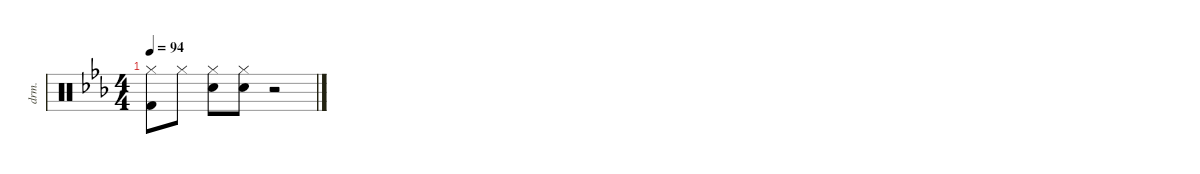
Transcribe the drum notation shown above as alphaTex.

\defaultSystemsLayout 4
\hideDynamics
\bracketExtendMode nobrackets
\otherSystemsTrackNameOrientation horizontal
\track ("Percussion" "drm.") {instrument percussion}
\staff {score}
\articulation defaults
\ts (4 4)
\tempo 94
\clef neutral
\ks eb
("Hi-Hat (closed)"{acc forcenatural} "Kick (hit) 2"{acc forcenatural}).8{dy f} "Hi-Hat (closed)"{acc forcenatural}.8 ("Hi-Hat (closed)"{acc forcenatural} "Snare (hit) 2"{acc forcenatural}).8 ("Hi-Hat (closed)"{acc forcenatural} "Snare (hit) 2"{acc forcenatural}).8 r.2
